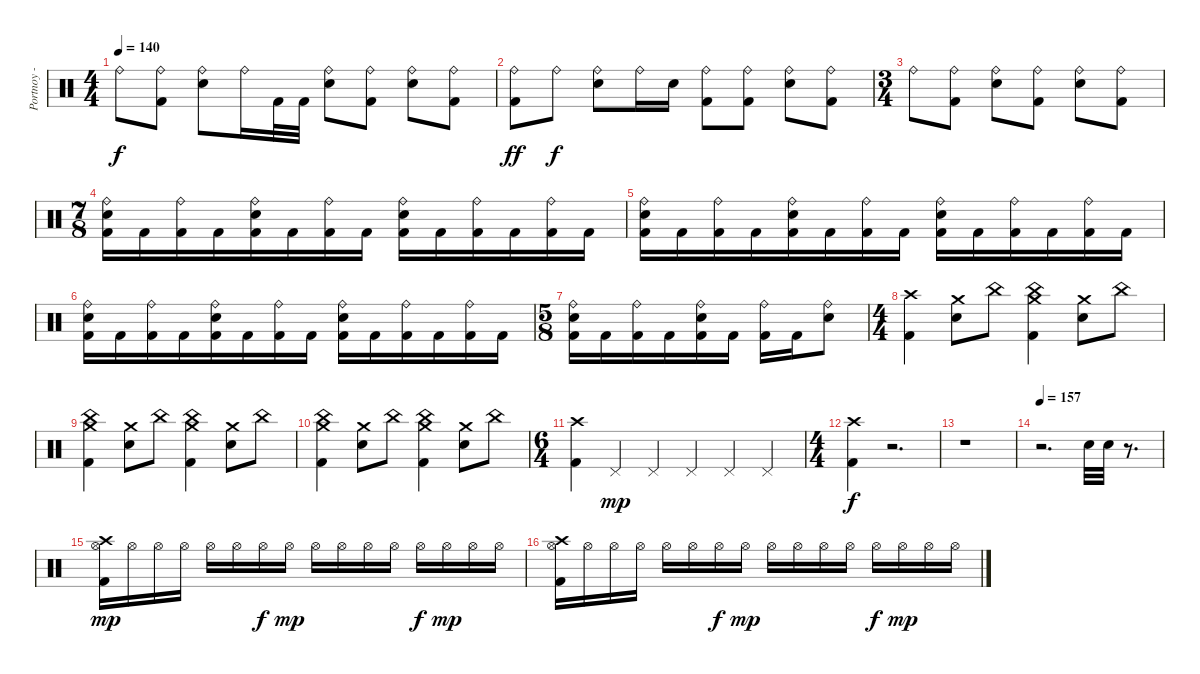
\track ("Portnoy - Drums" "Portnoy - ") {instrument percussion}
\staff {score}
\articulation defaults
\ts (4 4)
\tempo 140
\clef neutral
\ks c "Ride (bell)".8{dy f}
("Kick (hit) 2" "Ride (bell)").8 ("Electric Snare (hit)" "Ride (bell)").8 "Ride (bell)".16 "Kick (hit) 2".32 "Kick (hit) 2".32 ("Electric Snare (hit)" "Ride (bell)").8 ("Kick (hit) 2" "Ride (bell)").8 ("Electric Snare (hit)" "Ride (bell)").8 ("Kick (hit) 2" "Ride (bell)").8 |
("Kick (hit) 2" "Ride (bell)").8{dy ff} "Ride (bell)".8{dy f} ("Electric Snare (hit)" "Ride (bell)").8 "Ride (bell)".16 "Electric Snare (hit)".16 ("Kick (hit) 2" "Ride (bell)").8 ("Kick (hit) 2" "Ride (bell)").8 ("Electric Snare (hit)" "Ride (bell)").8 ("Kick (hit) 2" "Ride (bell)").8 |
\ts (3 4)
"Ride (bell)".8 ("Kick (hit) 2" "Ride (bell)").8 ("Electric Snare (hit)" "Ride (bell)").8 ("Ride (bell)" "Kick (hit) 2").8 ("Electric Snare (hit)" "Ride (bell)").8 ("Kick (hit) 2" "Ride (bell)").8 |
\ts (7 8)
("Kick (hit) 2" "Electric Snare (hit)" "Ride (bell)").16 "Kick (hit) 2".16 ("Kick (hit) 2" "Ride (bell)").16 "Kick (hit) 2".16 ("Kick (hit) 2" "Electric Snare (hit)" "Ride (bell)").16 "Kick (hit) 2".16 ("Kick (hit) 2" "Ride (bell)").16 "Kick (hit) 2".16 ("Kick (hit) 2" "Electric Snare (hit)" "Ride (bell)").16 "Kick (hit) 2".16 ("Kick (hit) 2" "Ride (bell)").16 "Kick (hit) 2".16 ("Kick (hit) 2" "Ride (bell)").16 "Kick (hit) 2".16 |
("Kick (hit) 2" "Ride (bell)" "Electric Snare (hit)").16 "Kick (hit) 2".16 ("Kick (hit) 2" "Ride (bell)").16 "Kick (hit) 2".16 ("Kick (hit) 2" "Ride (bell)" "Electric Snare (hit)").16 "Kick (hit) 2".16 ("Kick (hit) 2" "Ride (bell)").16 "Kick (hit) 2".16 ("Kick (hit) 2" "Ride (bell)" "Electric Snare (hit)").16 "Kick (hit) 2".16 ("Kick (hit) 2" "Ride (bell)").16 "Kick (hit) 2".16 ("Kick (hit) 2" "Ride (bell)").16 "Kick (hit) 2".16 |
("Kick (hit) 2" "Ride (bell)" "Electric Snare (hit)").16 "Kick (hit) 2".16 ("Kick (hit) 2" "Ride (bell)").16 "Kick (hit) 2".16 ("Kick (hit) 2" "Electric Snare (hit)" "Ride (bell)").16 "Kick (hit) 2".16 ("Kick (hit) 2" "Ride (bell)").16 "Kick (hit) 2".16 ("Kick (hit) 2" "Electric Snare (hit)" "Ride (bell)").16 "Kick (hit) 2".16 ("Kick (hit) 2" "Ride (bell)").16 "Kick (hit) 2".16 ("Kick (hit) 2" "Ride (bell)").16 "Kick (hit) 2".16 |
\ts (5 8)
("Kick (hit) 2" "Electric Snare (hit)" "Ride (bell)").16 "Kick (hit) 2".16 ("Kick (hit) 2" "Ride (bell)").16 "Kick (hit) 2".16 ("Kick (hit) 2" "Ride (bell)" "Electric Snare (hit)").16 "Kick (hit) 2".16 ("Kick (hit) 2" "Ride (bell)").16 "Kick (hit) 2".16 ("Electric Snare (hit)" "Ride (bell)").8 |
\ts (4 4)
("Crash high (hit)" "Kick (hit) 2").4 ("Electric Snare (hit)" "Crash medium (hit)").8 "China (hit)".8 ("Kick (hit) 2" "Crash medium (hit)" "China (hit)").4 ("Electric Snare (hit)" "Crash medium (hit)").8 "China (hit)".8 |
("Kick (hit) 2" "Crash medium (hit)" "China (hit)").4 ("Electric Snare (hit)" "Crash medium (hit)").8 "China (hit)".8 ("Kick (hit) 2" "Crash medium (hit)" "China (hit)").4 ("Electric Snare (hit)" "Crash medium (hit)").8 "China (hit)".8 |
("Kick (hit) 2" "Crash medium (hit)" "China (hit)").4 ("Electric Snare (hit)" "Crash medium (hit)").8 "China (hit)".8 ("Kick (hit) 2" "Crash medium (hit)" "China (hit)").4 ("Electric Snare (hit)" "Crash medium (hit)").8 "China (hit)".8 |
\ts (6 4)
("Kick (hit) 2" "Crash high (hit)").4 "Pedal Hi-Hat (hit)".4{dy mp} "Pedal Hi-Hat (hit)".4 "Pedal Hi-Hat (hit)".4 "Pedal Hi-Hat (hit)".4 "Pedal Hi-Hat (hit)".4 |
\ts (4 4)
("Kick (hit) 2" "Crash high (hit)").4{dy f} r.2{d} |
r.1 |
\tempo 157
r.2{d} "Electric Snare (hit)".32 "Electric Snare (hit)".32 r.8{d} |
("Crash high (hit)" "Kick (hit) 2" "Hi-Hat (open)").16{dy mp} "Hi-Hat (open)".16 "Hi-Hat (open)".16 "Hi-Hat (open)".16 "Hi-Hat (open)".16 "Hi-Hat (open)".16 "Hi-Hat (open)".16{dy f} "Hi-Hat (open)".16{dy mp} "Hi-Hat (open)".16 "Hi-Hat (open)".16 "Hi-Hat (open)".16 "Hi-Hat (open)".16 "Hi-Hat (open)".16{dy f} "Hi-Hat (open)".16{dy mp} "Hi-Hat (open)".16 "Hi-Hat (open)".16 |
("Crash high (hit)" "Kick (hit) 2" "Hi-Hat (open)").16 "Hi-Hat (open)".16 "Hi-Hat (open)".16 "Hi-Hat (open)".16 "Hi-Hat (open)".16 "Hi-Hat (open)".16 "Hi-Hat (open)".16{dy f} "Hi-Hat (open)".16{dy mp} "Hi-Hat (open)".16 "Hi-Hat (open)".16 "Hi-Hat (open)".16 "Hi-Hat (open)".16 "Hi-Hat (open)".16{dy f} "Hi-Hat (open)".16{dy mp} "Hi-Hat (open)".16 "Hi-Hat (open)".16
